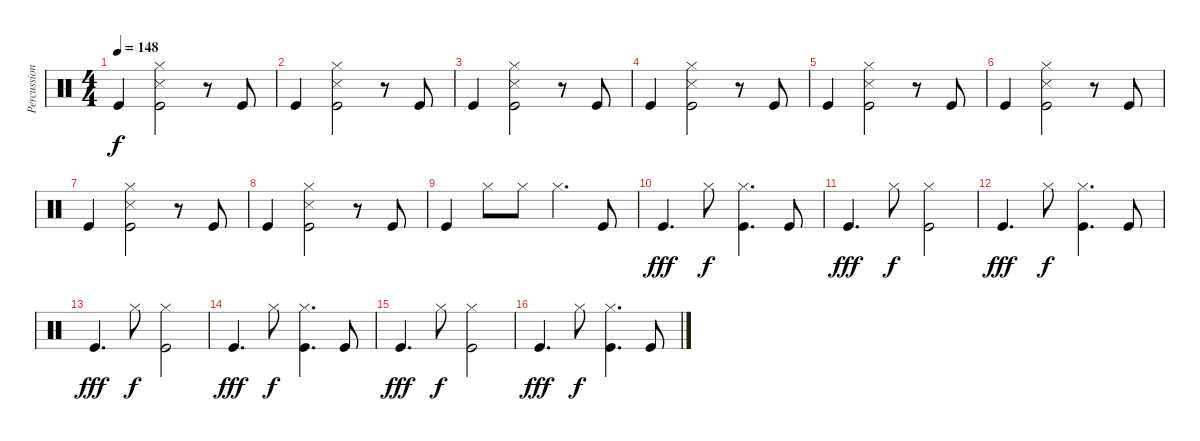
\track ("Percussion" "Percussion") {instrument percussion}
\staff {score}
\articulation defaults
\ts (4 4)
\tempo 148
\clef neutral
\ks c "Kick (hit)".4{dy f}
("Snare (side stick) 3" "Hi-Hat (closed)" "Kick (hit)").2 r.8 "Kick (hit)".8 |
"Kick (hit)".4 ("Snare (side stick) 3" "Hi-Hat (closed)" "Kick (hit)").2 r.8 "Kick (hit)".8 |
"Kick (hit)".4 ("Snare (side stick) 3" "Hi-Hat (closed)" "Kick (hit)").2 r.8 "Kick (hit)".8 |
"Kick (hit)".4 ("Snare (side stick) 3" "Hi-Hat (closed)" "Kick (hit)").2 r.8 "Kick (hit)".8 |
"Kick (hit)".4 ("Snare (side stick) 3" "Hi-Hat (closed)" "Kick (hit)").2 r.8 "Kick (hit)".8 |
"Kick (hit)".4 ("Snare (side stick) 3" "Hi-Hat (closed)" "Kick (hit)").2 r.8 "Kick (hit)".8 |
"Kick (hit)".4 ("Snare (side stick) 3" "Hi-Hat (closed)" "Kick (hit)").2 r.8 "Kick (hit)".8 |
"Kick (hit)".4 ("Snare (side stick) 3" "Hi-Hat (closed)" "Kick (hit)").2 r.8 "Kick (hit)".8 |
"Kick (hit)".4 "Hi-Hat (closed)".8 "Hi-Hat (closed)".8 "Hi-Hat (closed)".4{d} "Kick (hit)".8 |
"Kick (hit)".4{d dy fff} "Hi-Hat (closed)".8{dy f} ("Hi-Hat (closed)" "Kick (hit)").4{d} "Kick (hit)".8 |
"Kick (hit)".4{d dy fff} "Hi-Hat (closed)".8{dy f} ("Kick (hit)" "Hi-Hat (closed)").2 |
"Kick (hit)".4{d dy fff} "Hi-Hat (closed)".8{dy f} ("Hi-Hat (closed)" "Kick (hit)").4{d} "Kick (hit)".8 |
"Kick (hit)".4{d dy fff} "Hi-Hat (closed)".8{dy f} ("Kick (hit)" "Hi-Hat (closed)").2 |
"Kick (hit)".4{d dy fff} "Hi-Hat (closed)".8{dy f} ("Hi-Hat (closed)" "Kick (hit)").4{d} "Kick (hit)".8 |
"Kick (hit)".4{d dy fff} "Hi-Hat (closed)".8{dy f} ("Kick (hit)" "Hi-Hat (closed)").2 |
"Kick (hit)".4{d dy fff} "Hi-Hat (closed)".8{dy f} ("Hi-Hat (closed)" "Kick (hit)").4{d} "Kick (hit)".8
